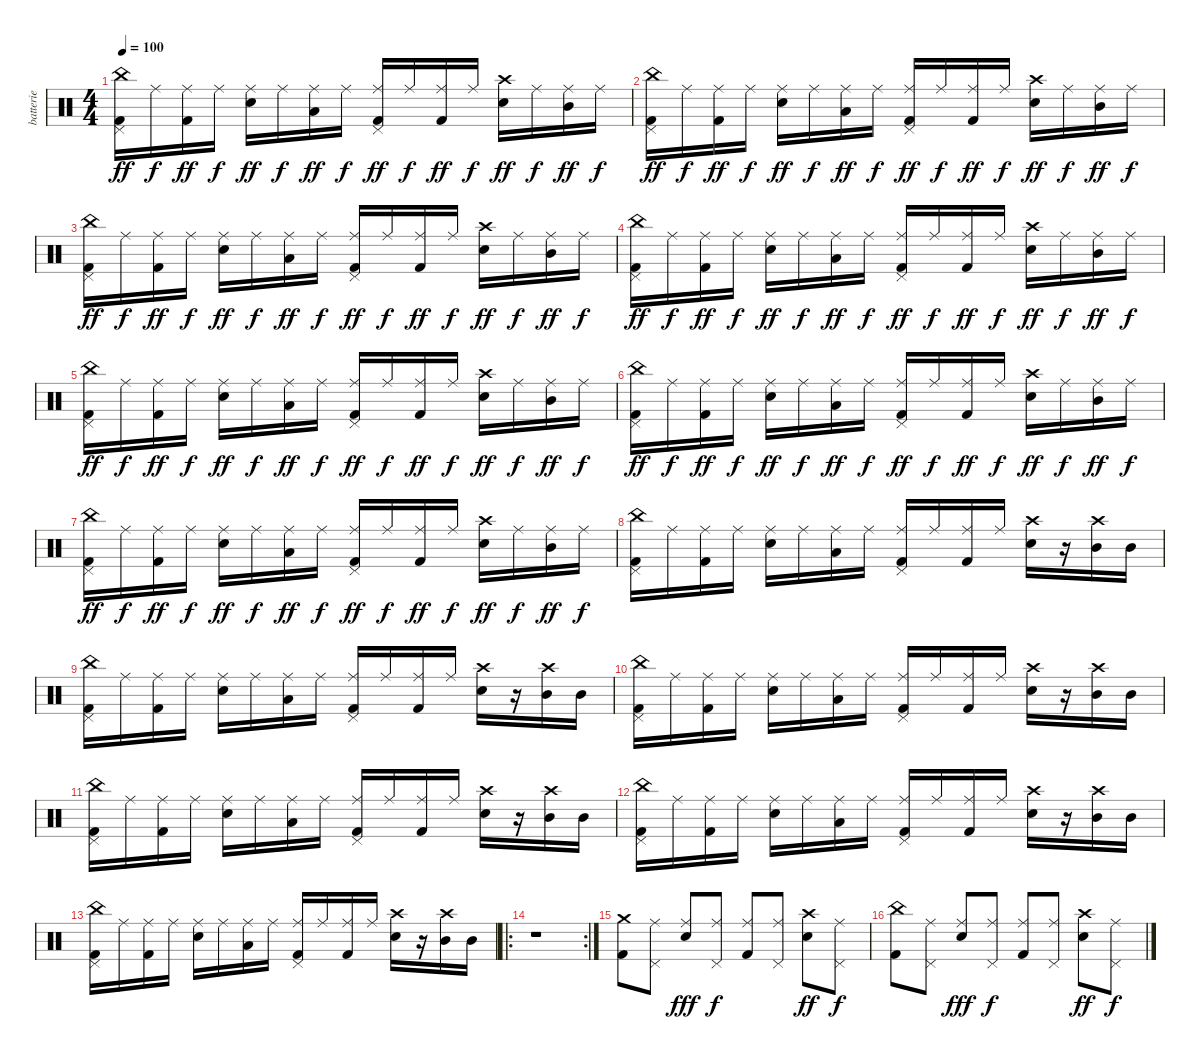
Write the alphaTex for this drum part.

\track ("batterie" "batterie") {instrument percussion}
\staff {score}
\articulation defaults
\ts (4 4)
\tempo 100
\clef neutral
\ks c
("China (hit)" "Pedal Hi-Hat (hit)" "Kick (hit) 2").16{dy ff} "Ride (middle)".16{dy f} ("Ride (middle)" "Kick (hit) 2").16{dy ff} "Ride (middle)".16{dy f} ("Ride (middle)" "Snare (hit) 2").16{dy ff} "Ride (middle)".16{dy f} ("Ride (middle)" "Low Floor Tom (hit)").16{dy ff} "Ride (middle)".16{dy f} ("Ride (middle)" "Pedal Hi-Hat (hit)" "Kick (hit) 2").16{dy ff} "Ride (middle)".16{dy f} ("Ride (middle)" "Kick (hit) 2").16{dy ff} "Ride (middle)".16{dy f} ("Crash high (hit)" "Snare (hit) 2").16{dy ff} "Ride (middle)".16{dy f} ("Ride (middle)" "Mid Tom (hit)").16{dy ff} "Ride (middle)".16{dy f} |
("China (hit)" "Pedal Hi-Hat (hit)" "Kick (hit) 2").16{dy ff} "Ride (middle)".16{dy f} ("Ride (middle)" "Kick (hit) 2").16{dy ff} "Ride (middle)".16{dy f} ("Ride (middle)" "Snare (hit) 2").16{dy ff} "Ride (middle)".16{dy f} ("Ride (middle)" "Low Floor Tom (hit)").16{dy ff} "Ride (middle)".16{dy f} ("Ride (middle)" "Pedal Hi-Hat (hit)" "Kick (hit) 2").16{dy ff} "Ride (middle)".16{dy f} ("Ride (middle)" "Kick (hit) 2").16{dy ff} "Ride (middle)".16{dy f} ("Crash high (hit)" "Snare (hit) 2").16{dy ff} "Ride (middle)".16{dy f} ("Ride (middle)" "Mid Tom (hit)").16{dy ff} "Ride (middle)".16{dy f} |
("China (hit)" "Pedal Hi-Hat (hit)" "Kick (hit) 2").16{dy ff} "Ride (middle)".16{dy f} ("Ride (middle)" "Kick (hit) 2").16{dy ff} "Ride (middle)".16{dy f} ("Ride (middle)" "Snare (hit) 2").16{dy ff} "Ride (middle)".16{dy f} ("Ride (middle)" "Low Floor Tom (hit)").16{dy ff} "Ride (middle)".16{dy f} ("Ride (middle)" "Pedal Hi-Hat (hit)" "Kick (hit) 2").16{dy ff} "Ride (middle)".16{dy f} ("Ride (middle)" "Kick (hit) 2").16{dy ff} "Ride (middle)".16{dy f} ("Crash high (hit)" "Snare (hit) 2").16{dy ff} "Ride (middle)".16{dy f} ("Ride (middle)" "Mid Tom (hit)").16{dy ff} "Ride (middle)".16{dy f} |
("China (hit)" "Pedal Hi-Hat (hit)" "Kick (hit) 2").16{dy ff} "Ride (middle)".16{dy f} ("Ride (middle)" "Kick (hit) 2").16{dy ff} "Ride (middle)".16{dy f} ("Ride (middle)" "Snare (hit) 2").16{dy ff} "Ride (middle)".16{dy f} ("Ride (middle)" "Low Floor Tom (hit)").16{dy ff} "Ride (middle)".16{dy f} ("Ride (middle)" "Pedal Hi-Hat (hit)" "Kick (hit) 2").16{dy ff} "Ride (middle)".16{dy f} ("Ride (middle)" "Kick (hit) 2").16{dy ff} "Ride (middle)".16{dy f} ("Crash high (hit)" "Snare (hit) 2").16{dy ff} "Ride (middle)".16{dy f} ("Ride (middle)" "Mid Tom (hit)").16{dy ff} "Ride (middle)".16{dy f} |
("China (hit)" "Pedal Hi-Hat (hit)" "Kick (hit) 2").16{dy ff} "Ride (middle)".16{dy f} ("Ride (middle)" "Kick (hit) 2").16{dy ff} "Ride (middle)".16{dy f} ("Ride (middle)" "Snare (hit) 2").16{dy ff} "Ride (middle)".16{dy f} ("Ride (middle)" "Low Floor Tom (hit)").16{dy ff} "Ride (middle)".16{dy f} ("Ride (middle)" "Pedal Hi-Hat (hit)" "Kick (hit) 2").16{dy ff} "Ride (middle)".16{dy f} ("Ride (middle)" "Kick (hit) 2").16{dy ff} "Ride (middle)".16{dy f} ("Crash high (hit)" "Snare (hit) 2").16{dy ff} "Ride (middle)".16{dy f} ("Ride (middle)" "Mid Tom (hit)").16{dy ff} "Ride (middle)".16{dy f} |
("China (hit)" "Pedal Hi-Hat (hit)" "Kick (hit) 2").16{dy ff} "Ride (middle)".16{dy f} ("Ride (middle)" "Kick (hit) 2").16{dy ff} "Ride (middle)".16{dy f} ("Ride (middle)" "Snare (hit) 2").16{dy ff} "Ride (middle)".16{dy f} ("Ride (middle)" "Low Floor Tom (hit)").16{dy ff} "Ride (middle)".16{dy f} ("Ride (middle)" "Pedal Hi-Hat (hit)" "Kick (hit) 2").16{dy ff} "Ride (middle)".16{dy f} ("Ride (middle)" "Kick (hit) 2").16{dy ff} "Ride (middle)".16{dy f} ("Crash high (hit)" "Snare (hit) 2").16{dy ff} "Ride (middle)".16{dy f} ("Ride (middle)" "Mid Tom (hit)").16{dy ff} "Ride (middle)".16{dy f} |
("China (hit)" "Pedal Hi-Hat (hit)" "Kick (hit) 2").16{dy ff} "Ride (middle)".16{dy f} ("Ride (middle)" "Kick (hit) 2").16{dy ff} "Ride (middle)".16{dy f} ("Ride (middle)" "Snare (hit) 2").16{dy ff} "Ride (middle)".16{dy f} ("Ride (middle)" "Low Floor Tom (hit)").16{dy ff} "Ride (middle)".16{dy f} ("Ride (middle)" "Pedal Hi-Hat (hit)" "Kick (hit) 2").16{dy ff} "Ride (middle)".16{dy f} ("Ride (middle)" "Kick (hit) 2").16{dy ff} "Ride (middle)".16{dy f} ("Crash high (hit)" "Snare (hit) 2").16{dy ff} "Ride (middle)".16{dy f} ("Ride (middle)" "Mid Tom (hit)").16{dy ff} "Ride (middle)".16{dy f} |
("China (hit)" "Pedal Hi-Hat (hit)" "Kick (hit) 2").16 "Ride (middle)".16 ("Ride (middle)" "Kick (hit) 2").16 "Ride (middle)".16 ("Ride (middle)" "Snare (hit) 2").16 "Ride (middle)".16 ("Ride (middle)" "Low Floor Tom (hit)").16 "Ride (middle)".16 ("Ride (middle)" "Pedal Hi-Hat (hit)" "Kick (hit) 2").16 "Ride (middle)".16 ("Ride (middle)" "Kick (hit) 2").16 "Ride (middle)".16 ("Crash high (hit)" "Snare (hit) 2").16 r.16 ("Crash high (hit)" "Mid Tom (hit)").16 "Mid Tom (hit)".16 |
("China (hit)" "Pedal Hi-Hat (hit)" "Kick (hit) 2").16 "Ride (middle)".16 ("Ride (middle)" "Kick (hit) 2").16 "Ride (middle)".16 ("Ride (middle)" "Snare (hit) 2").16 "Ride (middle)".16 ("Ride (middle)" "Low Floor Tom (hit)").16 "Ride (middle)".16 ("Ride (middle)" "Pedal Hi-Hat (hit)" "Kick (hit) 2").16 "Ride (middle)".16 ("Ride (middle)" "Kick (hit) 2").16 "Ride (middle)".16 ("Crash high (hit)" "Snare (hit) 2").16 r.16 ("Crash high (hit)" "Mid Tom (hit)").16 "Mid Tom (hit)".16 |
("China (hit)" "Pedal Hi-Hat (hit)" "Kick (hit) 2").16 "Ride (middle)".16 ("Ride (middle)" "Kick (hit) 2").16 "Ride (middle)".16 ("Ride (middle)" "Snare (hit) 2").16 "Ride (middle)".16 ("Ride (middle)" "Low Floor Tom (hit)").16 "Ride (middle)".16 ("Ride (middle)" "Pedal Hi-Hat (hit)" "Kick (hit) 2").16 "Ride (middle)".16 ("Ride (middle)" "Kick (hit) 2").16 "Ride (middle)".16 ("Crash high (hit)" "Snare (hit) 2").16 r.16 ("Crash high (hit)" "Mid Tom (hit)").16 "Mid Tom (hit)".16 |
("China (hit)" "Pedal Hi-Hat (hit)" "Kick (hit) 2").16 "Ride (middle)".16 ("Ride (middle)" "Kick (hit) 2").16 "Ride (middle)".16 ("Ride (middle)" "Snare (hit) 2").16 "Ride (middle)".16 ("Ride (middle)" "Low Floor Tom (hit)").16 "Ride (middle)".16 ("Ride (middle)" "Pedal Hi-Hat (hit)" "Kick (hit) 2").16 "Ride (middle)".16 ("Ride (middle)" "Kick (hit) 2").16 "Ride (middle)".16 ("Crash high (hit)" "Snare (hit) 2").16 r.16 ("Crash high (hit)" "Mid Tom (hit)").16 "Mid Tom (hit)".16 |
("China (hit)" "Pedal Hi-Hat (hit)" "Kick (hit) 2").16 "Ride (middle)".16 ("Ride (middle)" "Kick (hit) 2").16 "Ride (middle)".16 ("Ride (middle)" "Snare (hit) 2").16 "Ride (middle)".16 ("Ride (middle)" "Low Floor Tom (hit)").16 "Ride (middle)".16 ("Ride (middle)" "Pedal Hi-Hat (hit)" "Kick (hit) 2").16 "Ride (middle)".16 ("Ride (middle)" "Kick (hit) 2").16 "Ride (middle)".16 ("Crash high (hit)" "Snare (hit) 2").16 r.16 ("Crash high (hit)" "Mid Tom (hit)").16 "Mid Tom (hit)".16 |
("China (hit)" "Pedal Hi-Hat (hit)" "Kick (hit) 2").16 "Ride (middle)".16 ("Ride (middle)" "Kick (hit) 2").16 "Ride (middle)".16 ("Ride (middle)" "Snare (hit) 2").16 "Ride (middle)".16 ("Ride (middle)" "Low Floor Tom (hit)").16 "Ride (middle)".16 ("Ride (middle)" "Pedal Hi-Hat (hit)" "Kick (hit) 2").16 "Ride (middle)".16 ("Ride (middle)" "Kick (hit) 2").16 "Ride (middle)".16 ("Crash high (hit)" "Snare (hit) 2").16 r.16 ("Crash high (hit)" "Mid Tom (hit)").16 "Mid Tom (hit)".16 |
\ro
\rc 2
r.1 |
("Crash medium (hit)" "Kick (hit) 2").8 ("Ride (middle)" "Pedal Hi-Hat (hit)").8 ("Ride (middle)" "Snare (hit) 2").8{dy fff} ("Ride (middle)" "Pedal Hi-Hat (hit)").8{dy f} ("Ride (middle)" "Kick (hit) 2").8 ("Ride (middle)" "Pedal Hi-Hat (hit)").8 ("Crash high (hit)" "Snare (hit) 2").8{dy ff} ("Ride (middle)" "Pedal Hi-Hat (hit)").8{dy f} |
("China (hit)" "Kick (hit) 2").8 ("Ride (middle)" "Pedal Hi-Hat (hit)").8 ("Ride (middle)" "Snare (hit) 2").8{dy fff} ("Ride (middle)" "Pedal Hi-Hat (hit)").8{dy f} ("Ride (middle)" "Kick (hit) 2").8 ("Ride (middle)" "Pedal Hi-Hat (hit)").8 ("Crash high (hit)" "Snare (hit) 2").8{dy ff} ("Ride (middle)" "Pedal Hi-Hat (hit)").8{dy f}
